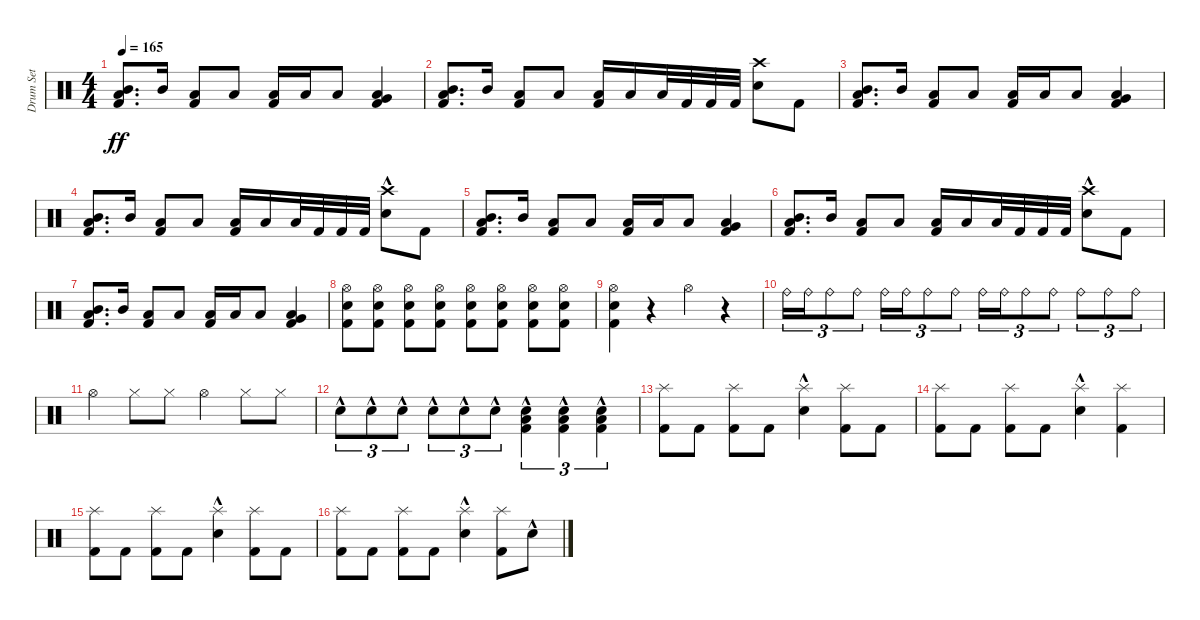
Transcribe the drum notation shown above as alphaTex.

\track ("Drum Set" "Drum Set") {instrument percussion}
\staff {score}
\articulation defaults
\ts (4 4)
\tempo 165
\clef neutral
\ks c
("Mid Tom (hit)" "Low Floor Tom (hit)" "Kick (hit) 2").8{d dy ff} "Mid Tom (hit)".16 ("Low Floor Tom (hit)" "Kick (hit) 2").8 "Low Tom (hit)".8 ("Low Floor Tom (hit)" "Kick (hit) 2").16 "Low Tom (hit)".16 "Low Floor Tom (hit)".8 ("Very Low Tom (hit)" "Low Floor Tom (hit)" "Kick (hit) 2").4 |
("Mid Tom (hit)" "Low Floor Tom (hit)" "Kick (hit) 2").8{d} "Mid Tom (hit)".16 ("Low Floor Tom (hit)" "Kick (hit) 2").8 "Low Tom (hit)".8 ("Low Floor Tom (hit)" "Kick (hit) 2").16 "Low Tom (hit)".16 "Low Floor Tom (hit)".32 "Kick (hit) 2".32 "Kick (hit) 2".32 "Kick (hit) 2".32 ("Crash high (hit)" "Snare (hit) 2").8 "Kick (hit) 2".8 |
("Mid Tom (hit)" "Low Floor Tom (hit)" "Kick (hit) 2").8{d} "Mid Tom (hit)".16 ("Low Floor Tom (hit)" "Kick (hit) 2").8 "Low Tom (hit)".8 ("Low Floor Tom (hit)" "Kick (hit) 2").16 "Low Tom (hit)".16 "Low Floor Tom (hit)".8 ("Very Low Tom (hit)" "Low Floor Tom (hit)" "Kick (hit) 2").4 |
("Mid Tom (hit)" "Low Floor Tom (hit)" "Kick (hit) 2").8{d} "Mid Tom (hit)".16 ("Low Floor Tom (hit)" "Kick (hit) 2").8 "Low Tom (hit)".8 ("Low Floor Tom (hit)" "Kick (hit) 2").16 "Low Tom (hit)".16 "Low Floor Tom (hit)".32 "Kick (hit) 2".32 "Kick (hit) 2".32 "Kick (hit) 2".32 ("Crash high (hit)" "Snare (hit) 2"{hac}).8 "Kick (hit) 2".8 |
("Mid Tom (hit)" "Low Floor Tom (hit)" "Kick (hit) 2").8{d} "Mid Tom (hit)".16 ("Low Floor Tom (hit)" "Kick (hit) 2").8 "Low Tom (hit)".8 ("Low Floor Tom (hit)" "Kick (hit) 2").16 "Low Tom (hit)".16 "Low Floor Tom (hit)".8 ("Very Low Tom (hit)" "Low Floor Tom (hit)" "Kick (hit) 2").4 |
("Mid Tom (hit)" "Low Floor Tom (hit)" "Kick (hit) 2").8{d} "Mid Tom (hit)".16 ("Low Floor Tom (hit)" "Kick (hit) 2").8 "Low Tom (hit)".8 ("Low Floor Tom (hit)" "Kick (hit) 2").16 "Low Tom (hit)".16 "Low Floor Tom (hit)".32 "Kick (hit) 2".32 "Kick (hit) 2".32 "Kick (hit) 2".32 ("Crash high (hit)" "Snare (hit) 2"{hac}).8 "Kick (hit) 2".8 |
("Mid Tom (hit)" "Low Floor Tom (hit)" "Kick (hit) 2").8{d} "Mid Tom (hit)".16 ("Low Floor Tom (hit)" "Kick (hit) 2").8 "Low Tom (hit)".8 ("Low Floor Tom (hit)" "Kick (hit) 2").16 "Low Tom (hit)".16 "Low Floor Tom (hit)".8 ("Very Low Tom (hit)" "Low Floor Tom (hit)" "Kick (hit) 2").4 |
("Hi-Hat (open)" "Snare (hit) 2" "Kick (hit) 2").8 ("Hi-Hat (open)" "Snare (hit) 2" "Kick (hit) 2").8 ("Hi-Hat (open)" "Snare (hit) 2" "Kick (hit) 2").8 ("Hi-Hat (open)" "Snare (hit) 2" "Kick (hit) 2").8 ("Hi-Hat (open)" "Snare (hit) 2" "Kick (hit) 2").8 ("Hi-Hat (open)" "Snare (hit) 2" "Kick (hit) 2").8 ("Hi-Hat (open)" "Snare (hit) 2" "Kick (hit) 2").8 ("Hi-Hat (open)" "Snare (hit) 2" "Kick (hit) 2").8 |
("Hi-Hat (open)" "Snare (hit) 2" "Kick (hit) 2").4 r.4 "Hi-Hat (open)".4 r.4 |
"Ride (bell)".16{tu (3 2)} "Ride (bell)".16{tu (3 2)} "Ride (bell)".8{tu (3 2)} "Ride (bell)".8{tu (3 2)} "Ride (bell)".16{tu (3 2)} "Ride (bell)".16{tu (3 2)} "Ride (bell)".8{tu (3 2)} "Ride (bell)".8{tu (3 2)} "Ride (bell)".16{tu (3 2)} "Ride (bell)".16{tu (3 2)} "Ride (bell)".8{tu (3 2)} "Ride (bell)".8{tu (3 2)} "Ride (bell)".8{tu (3 2)} "Ride (bell)".8{tu (3 2)} "Ride (bell)".8{tu (3 2)} |
"Hi-Hat (open)".4 "Hi-Hat (closed)".8 "Hi-Hat (closed)".8 "Hi-Hat (open)".4 "Hi-Hat (closed)".8 "Hi-Hat (closed)".8 |
"Snare (hit) 2"{hac}.8{tu (3 2)} "Snare (hit) 2"{hac}.8{tu (3 2)} "Snare (hit) 2"{hac}.8{tu (3 2)} "Snare (hit) 2"{hac}.8{tu (3 2)} "Snare (hit) 2"{hac}.8{tu (3 2)} "Snare (hit) 2"{hac}.8{tu (3 2)} ("Low Floor Tom (hit)"{hac} "Snare (hit) 2"{hac} "Kick (hit) 2").4{tu (3 2)} ("Low Floor Tom (hit)"{hac} "Snare (hit) 2"{hac} "Kick (hit) 2").4{tu (3 2)} ("Low Floor Tom (hit)"{hac} "Snare (hit) 2"{hac} "Kick (hit) 2").4{tu (3 2)} |
("Splash (hit)" "Kick (hit) 2").8 "Kick (hit) 2".8 ("Splash (hit)" "Kick (hit) 2").8 "Kick (hit) 2".8 ("Splash (hit)" "Snare (hit) 2"{hac}).4 ("Splash (hit)" "Kick (hit) 2").8 "Kick (hit) 2".8 |
("Splash (hit)" "Kick (hit) 2").8 "Kick (hit) 2".8 ("Splash (hit)" "Kick (hit) 2").8 "Kick (hit) 2".8 ("Splash (hit)" "Snare (hit) 2"{hac}).4 ("Splash (hit)" "Kick (hit) 2").4 |
("Splash (hit)" "Kick (hit) 2").8 "Kick (hit) 2".8 ("Splash (hit)" "Kick (hit) 2").8 "Kick (hit) 2".8 ("Splash (hit)" "Snare (hit) 2"{hac}).4 ("Splash (hit)" "Kick (hit) 2").8 "Kick (hit) 2".8 |
("Splash (hit)" "Kick (hit) 2").8 "Kick (hit) 2".8 ("Splash (hit)" "Kick (hit) 2").8 "Kick (hit) 2".8 ("Splash (hit)" "Snare (hit) 2"{hac}).4 ("Splash (hit)" "Kick (hit) 2").8 "Snare (hit) 2"{hac}.8
